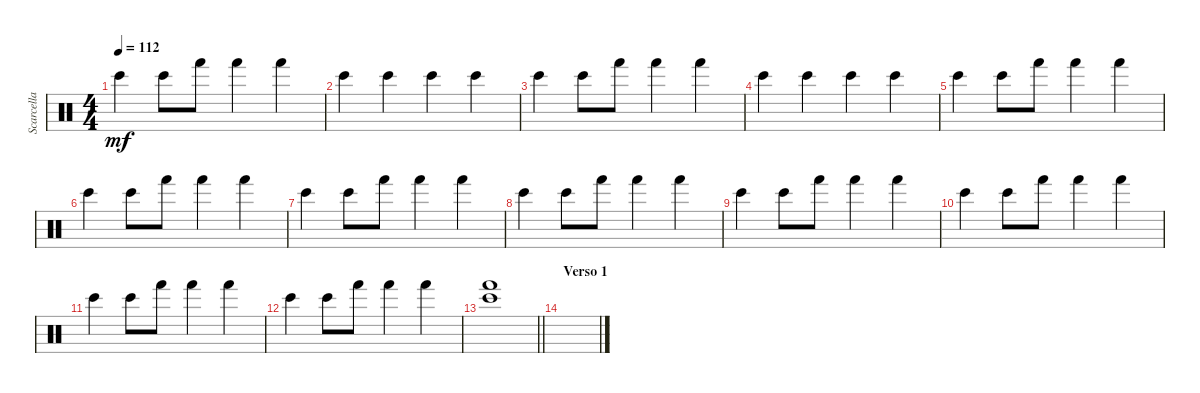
\track ("Scarcella" "Scarcella") {instrument percussion}
\staff {score}
\articulation defaults
\ts (4 4)
\tempo 112
\clef neutral
\ks c "Bongo High (hit)".4{dy mf} "Bongo High (hit)".8 "Hand (hit)".8 "Hand (hit)".4 "Hand (hit)".4
|
"Bongo High (hit)".4 "Bongo High (hit)".4 "Bongo High (hit)".4 "Bongo High (hit)".4 |
"Bongo High (hit)".4 "Bongo High (hit)".8 "Hand (hit)".8 "Hand (hit)".4 "Hand (hit)".4 |
"Bongo High (hit)".4 "Bongo High (hit)".4 "Bongo High (hit)".4 "Bongo High (hit)".4 |
"Bongo High (hit)".4 "Bongo High (hit)".8 "Hand (hit)".8 "Hand (hit)".4 "Hand (hit)".4 |
"Bongo High (hit)".4 "Bongo High (hit)".8 "Hand (hit)".8 "Hand (hit)".4 "Hand (hit)".4 |
"Bongo High (hit)".4 "Bongo High (hit)".8 "Hand (hit)".8 "Hand (hit)".4 "Hand (hit)".4 |
"Bongo High (hit)".4 "Bongo High (hit)".8 "Hand (hit)".8 "Hand (hit)".4 "Hand (hit)".4 |
"Bongo High (hit)".4 "Bongo High (hit)".8 "Hand (hit)".8 "Hand (hit)".4 "Hand (hit)".4 |
"Bongo High (hit)".4 "Bongo High (hit)".8 "Hand (hit)".8 "Hand (hit)".4 "Hand (hit)".4 |
"Bongo High (hit)".4 "Bongo High (hit)".8 "Hand (hit)".8 "Hand (hit)".4 "Hand (hit)".4 |
"Bongo High (hit)".4 "Bongo High (hit)".8 "Hand (hit)".8 "Hand (hit)".4 "Hand (hit)".4 |
\barLineRight lightlight
("Bongo High (hit)" "Hand (hit)").1 |
\section ("" "Verso 1")
